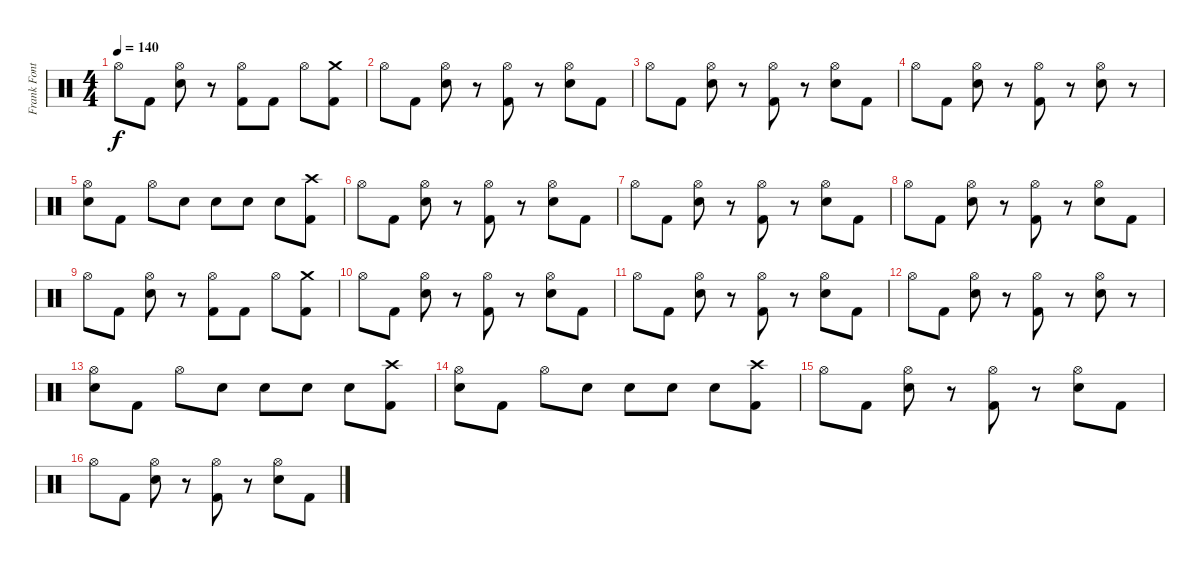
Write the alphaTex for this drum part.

\track ("Frank Fontsere" "Frank Font") {instrument percussion}
\staff {score}
\articulation defaults
\ts (4 4)
\tempo 140
\clef neutral
\ks c "Hi-Hat (open)".8{dy f} "Kick (hit) 2".8
("Hi-Hat (open)" "Electric Snare (hit)").8 r.8 ("Hi-Hat (open)" "Kick (hit) 2").8 "Kick (hit) 2".8 "Hi-Hat (open)".8 ("Crash medium (hit)" "Kick (hit) 2").8 |
"Hi-Hat (open)".8 "Kick (hit) 2".8 ("Hi-Hat (open)" "Electric Snare (hit)").8 r.8 ("Hi-Hat (open)" "Kick (hit) 2").8 r.8 ("Hi-Hat (open)" "Electric Snare (hit)").8 "Kick (hit) 2".8 |
"Hi-Hat (open)".8 "Kick (hit) 2".8 ("Hi-Hat (open)" "Electric Snare (hit)").8 r.8 ("Hi-Hat (open)" "Kick (hit) 2").8 r.8 ("Hi-Hat (open)" "Electric Snare (hit)").8 "Kick (hit) 2".8 |
"Hi-Hat (open)".8 "Kick (hit) 2".8 ("Hi-Hat (open)" "Electric Snare (hit)").8 r.8 ("Hi-Hat (open)" "Kick (hit) 2").8 r.8 ("Hi-Hat (open)" "Electric Snare (hit)").8 r.8 |
("Hi-Hat (open)" "Electric Snare (hit)").8 "Kick (hit) 2".8 "Hi-Hat (open)".8 "Electric Snare (hit)".8 "Electric Snare (hit)".8 "Electric Snare (hit)".8 "Electric Snare (hit)".8 ("Crash high (hit)" "Kick (hit) 2").8 |
"Hi-Hat (open)".8 "Kick (hit) 2".8 ("Hi-Hat (open)" "Electric Snare (hit)").8 r.8 ("Hi-Hat (open)" "Kick (hit) 2").8 r.8 ("Hi-Hat (open)" "Electric Snare (hit)").8 "Kick (hit) 2".8 |
"Hi-Hat (open)".8 "Kick (hit) 2".8 ("Hi-Hat (open)" "Electric Snare (hit)").8 r.8 ("Hi-Hat (open)" "Kick (hit) 2").8 r.8 ("Hi-Hat (open)" "Electric Snare (hit)").8 "Kick (hit) 2".8 |
"Hi-Hat (open)".8 "Kick (hit) 2".8 ("Hi-Hat (open)" "Electric Snare (hit)").8 r.8 ("Hi-Hat (open)" "Kick (hit) 2").8 r.8 ("Hi-Hat (open)" "Electric Snare (hit)").8 "Kick (hit) 2".8 |
"Hi-Hat (open)".8 "Kick (hit) 2".8 ("Hi-Hat (open)" "Electric Snare (hit)").8 r.8 ("Hi-Hat (open)" "Kick (hit) 2").8 "Kick (hit) 2".8 "Hi-Hat (open)".8 ("Crash medium (hit)" "Kick (hit) 2").8 |
"Hi-Hat (open)".8 "Kick (hit) 2".8 ("Hi-Hat (open)" "Electric Snare (hit)").8 r.8 ("Hi-Hat (open)" "Kick (hit) 2").8 r.8 ("Hi-Hat (open)" "Electric Snare (hit)").8 "Kick (hit) 2".8 |
"Hi-Hat (open)".8 "Kick (hit) 2".8 ("Hi-Hat (open)" "Electric Snare (hit)").8 r.8 ("Hi-Hat (open)" "Kick (hit) 2").8 r.8 ("Hi-Hat (open)" "Electric Snare (hit)").8 "Kick (hit) 2".8 |
"Hi-Hat (open)".8 "Kick (hit) 2".8 ("Hi-Hat (open)" "Electric Snare (hit)").8 r.8 ("Hi-Hat (open)" "Kick (hit) 2").8 r.8 ("Hi-Hat (open)" "Electric Snare (hit)").8 r.8 |
("Hi-Hat (open)" "Electric Snare (hit)").8 "Kick (hit) 2".8 "Hi-Hat (open)".8 "Electric Snare (hit)".8 "Electric Snare (hit)".8 "Electric Snare (hit)".8 "Electric Snare (hit)".8 ("Crash high (hit)" "Kick (hit) 2").8 |
("Hi-Hat (open)" "Electric Snare (hit)").8 "Kick (hit) 2".8 "Hi-Hat (open)".8 "Electric Snare (hit)".8 "Electric Snare (hit)".8 "Electric Snare (hit)".8 "Electric Snare (hit)".8 ("Crash high (hit)" "Kick (hit) 2").8 |
"Hi-Hat (open)".8 "Kick (hit) 2".8 ("Hi-Hat (open)" "Electric Snare (hit)").8 r.8 ("Hi-Hat (open)" "Kick (hit) 2").8 r.8 ("Hi-Hat (open)" "Electric Snare (hit)").8 "Kick (hit) 2".8 |
"Hi-Hat (open)".8 "Kick (hit) 2".8 ("Hi-Hat (open)" "Electric Snare (hit)").8 r.8 ("Hi-Hat (open)" "Kick (hit) 2").8 r.8 ("Hi-Hat (open)" "Electric Snare (hit)").8 "Kick (hit) 2".8
